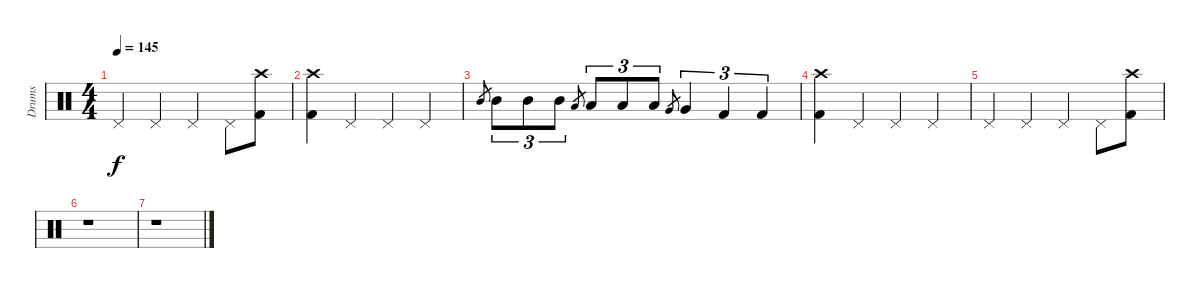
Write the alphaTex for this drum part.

\track ("Drums" "Drums") {instrument percussion}
\staff {score}
\articulation defaults
\ts (4 4)
\tempo 145
\clef neutral
\ks c "Pedal Hi-Hat (hit)".4{dy f} "Pedal Hi-Hat (hit)".4 "Pedal Hi-Hat (hit)".4 "Pedal Hi-Hat (hit)".8
("Crash high (hit)" "Kick (hit) 2").8 |
("Crash high (hit)" "Kick (hit) 2").4 "Pedal Hi-Hat (hit)".4 "Pedal Hi-Hat (hit)".4 "Pedal Hi-Hat (hit)".4 |
"Mid Tom (hit)".8{gr} "Mid Tom (hit)".8{tu (3 2)} "Mid Tom (hit)".8{tu (3 2)} "Mid Tom (hit)".8{tu (3 2)} "Low Tom (hit)".8{gr} "Low Tom (hit)".8{tu (3 2)} "Low Tom (hit)".8{tu (3 2)} "Low Tom (hit)".8{tu (3 2)} "Very Low Tom (hit)".8{gr} "Very Low Tom (hit)".4{tu (3 2)} "Kick (hit) 2".4{tu (3 2)} "Kick (hit) 2".4{tu (3 2)} |
("Crash high (hit)" "Kick (hit) 2").4{volume 1} "Pedal Hi-Hat (hit)".4 "Pedal Hi-Hat (hit)".4 "Pedal Hi-Hat (hit)".4 |
"Pedal Hi-Hat (hit)".4 "Pedal Hi-Hat (hit)".4 "Pedal Hi-Hat (hit)".4 "Pedal Hi-Hat (hit)".8 ("Crash high (hit)" "Kick (hit) 2").8 |
r.1 |
r.1
